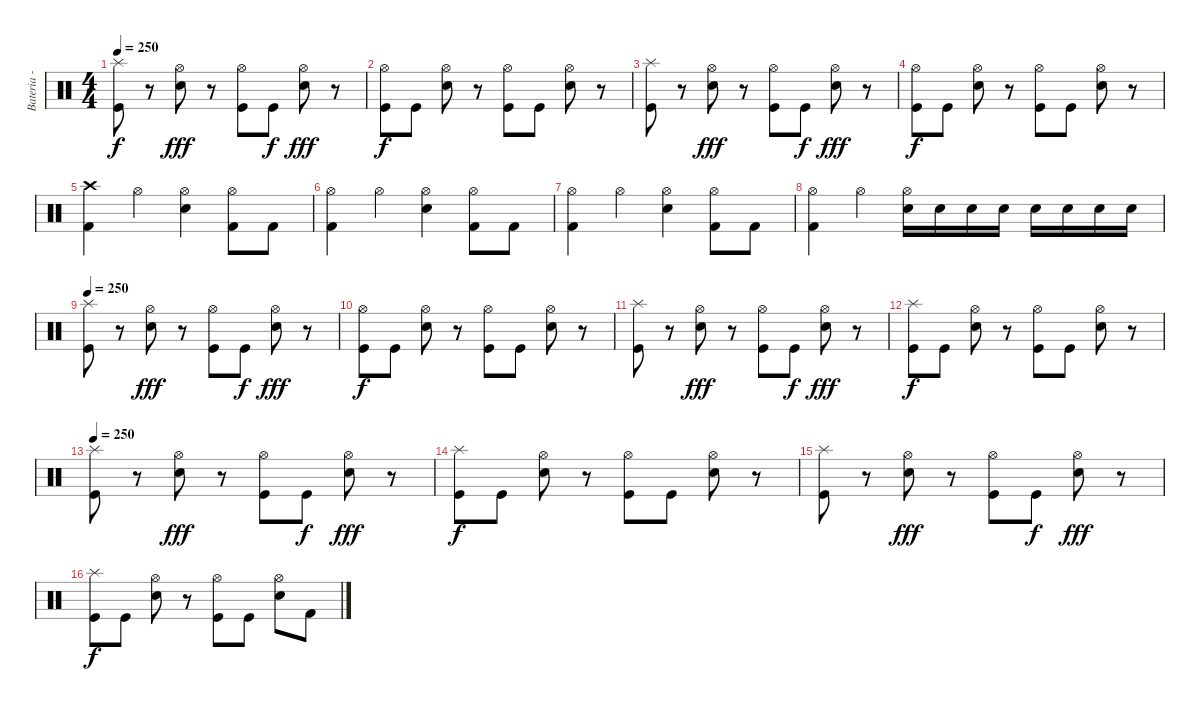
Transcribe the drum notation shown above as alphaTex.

\track ("Bateria - Japinha" "Bateria - ") {instrument percussion}
\staff {score}
\articulation defaults
\ts (4 4)
\tempo 250
\clef neutral
\ks c
("Kick (hit)" "Splash (hit)").8{dy f} r.8 ("Snare (hit) 2" "Hi-Hat (open)").8{dy fff} r.8 ("Kick (hit)" "Hi-Hat (open)").8 "Kick (hit)".8{dy f} ("Snare (hit) 2" "Hi-Hat (open)").8{dy fff} r.8 |
("Kick (hit)" "Hi-Hat (open)").8{dy f} "Kick (hit)".8 ("Snare (hit) 2" "Hi-Hat (open)").8 r.8 ("Kick (hit)" "Hi-Hat (open)").8 "Kick (hit)".8 ("Snare (hit) 2" "Hi-Hat (open)").8 r.8 |
("Kick (hit)" "Splash (hit)").8 r.8 ("Snare (hit) 2" "Hi-Hat (open)").8{dy fff} r.8 ("Kick (hit)" "Hi-Hat (open)").8 "Kick (hit)".8{dy f} ("Snare (hit) 2" "Hi-Hat (open)").8{dy fff} r.8 |
("Kick (hit)" "Hi-Hat (open)").8{dy f} "Kick (hit)".8 ("Snare (hit) 2" "Hi-Hat (open)").8 r.8 ("Kick (hit)" "Hi-Hat (open)").8 "Kick (hit)".8 ("Snare (hit) 2" "Hi-Hat (open)").8 r.8 |
("Kick (hit) 2" "Crash high (hit)").4 "Hi-Hat (open)".4 ("Snare (hit) 2" "Hi-Hat (open)").4 ("Kick (hit) 2" "Hi-Hat (open)").8 "Kick (hit) 2".8 |
("Kick (hit) 2" "Hi-Hat (open)").4 "Hi-Hat (open)".4 ("Snare (hit) 2" "Hi-Hat (open)").4 ("Kick (hit) 2" "Hi-Hat (open)").8 "Kick (hit) 2".8 |
("Kick (hit) 2" "Hi-Hat (open)").4 "Hi-Hat (open)".4 ("Snare (hit) 2" "Hi-Hat (open)").4 ("Kick (hit) 2" "Hi-Hat (open)").8 "Kick (hit) 2".8 |
("Kick (hit) 2" "Hi-Hat (open)").4 "Hi-Hat (open)".4 ("Snare (hit) 2" "Hi-Hat (open)").16 "Snare (hit) 2".16 "Snare (hit) 2".16 "Snare (hit) 2".16 "Snare (hit) 2".16 "Snare (hit) 2".16 "Snare (hit) 2".16 "Snare (hit) 2".16 |
\tempo 250
("Kick (hit)" "Splash (hit)").8 r.8 ("Snare (hit) 2" "Hi-Hat (open)").8{dy fff} r.8 ("Kick (hit)" "Hi-Hat (open)").8 "Kick (hit)".8{dy f} ("Snare (hit) 2" "Hi-Hat (open)").8{dy fff} r.8 |
("Kick (hit)" "Hi-Hat (open)").8{dy f} "Kick (hit)".8 ("Snare (hit) 2" "Hi-Hat (open)").8 r.8 ("Kick (hit)" "Hi-Hat (open)").8 "Kick (hit)".8 ("Snare (hit) 2" "Hi-Hat (open)").8 r.8 |
("Kick (hit)" "Splash (hit)").8 r.8 ("Snare (hit) 2" "Hi-Hat (open)").8{dy fff} r.8 ("Kick (hit)" "Hi-Hat (open)").8 "Kick (hit)".8{dy f} ("Snare (hit) 2" "Hi-Hat (open)").8{dy fff} r.8 |
("Kick (hit)" "Splash (hit)").8{dy f} "Kick (hit)".8 ("Snare (hit) 2" "Hi-Hat (open)").8 r.8 ("Kick (hit)" "Hi-Hat (open)").8 "Kick (hit)".8 ("Snare (hit) 2" "Hi-Hat (open)").8 r.8 |
\tempo 250
("Kick (hit)" "Splash (hit)").8 r.8 ("Snare (hit) 2" "Hi-Hat (open)").8{dy fff} r.8 ("Kick (hit)" "Hi-Hat (open)").8 "Kick (hit)".8{dy f} ("Snare (hit) 2" "Hi-Hat (open)").8{dy fff} r.8 |
("Kick (hit)" "Splash (hit)").8{dy f} "Kick (hit)".8 ("Snare (hit) 2" "Hi-Hat (open)").8 r.8 ("Kick (hit)" "Hi-Hat (open)").8 "Kick (hit)".8 ("Snare (hit) 2" "Hi-Hat (open)").8 r.8 |
("Kick (hit)" "Splash (hit)").8 r.8 ("Snare (hit) 2" "Hi-Hat (open)").8{dy fff} r.8 ("Kick (hit)" "Hi-Hat (open)").8 "Kick (hit)".8{dy f} ("Snare (hit) 2" "Hi-Hat (open)").8{dy fff} r.8 |
("Kick (hit)" "Splash (hit)").8{dy f} "Kick (hit)".8 ("Snare (hit) 2" "Hi-Hat (open)").8 r.8 ("Kick (hit)" "Hi-Hat (open)").8 "Kick (hit)".8 ("Snare (hit) 2" "Hi-Hat (open)").8 "Kick (hit) 2".8
